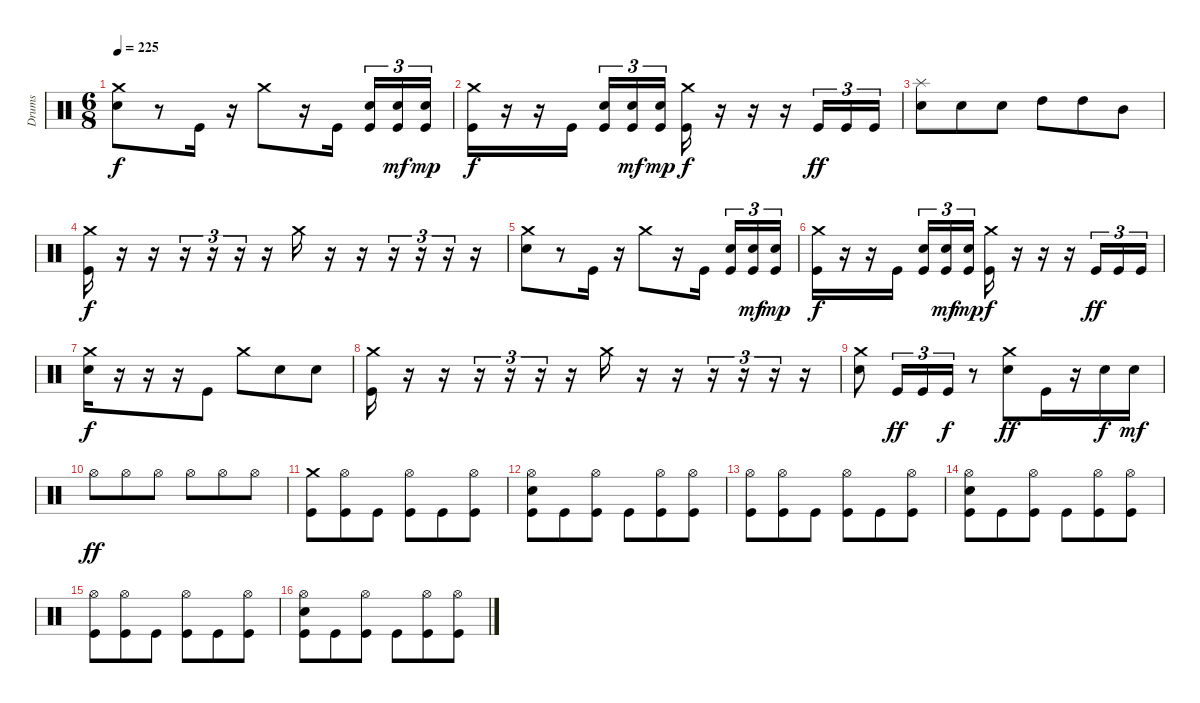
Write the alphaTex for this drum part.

\track ("Drums" "Drums") {instrument percussion}
\staff {score}
\articulation defaults
\ts (6 8)
\tempo 225
\clef neutral
\ks c
("Snare (hit) 2" "Crash medium (hit)").8{dy f} r.8 "Kick (hit)".16 r.16 "Crash medium (hit)".8 r.16 "Kick (hit)".16{beam splitsecondary} ("Kick (hit)" "Snare (hit) 2").16{tu (3 2)} ("Kick (hit)" "Snare (hit) 2").16{tu (3 2) dy mf} ("Kick (hit)" "Snare (hit) 2").16{tu (3 2) dy mp} |
("Kick (hit)" "Crash medium (hit)").16{dy f} r.16 r.16 "Kick (hit)".16{beam splitsecondary} ("Kick (hit)" "Snare (hit) 2").16{tu (3 2)} ("Kick (hit)" "Snare (hit) 2").16{tu (3 2) dy mf} ("Kick (hit)" "Snare (hit) 2").16{tu (3 2) dy mp} ("Kick (hit)" "Crash medium (hit)").16{dy f} r.16 r.16 r.16 "Kick (hit)".16{tu (3 2) dy ff} "Kick (hit)".16{tu (3 2)} "Kick (hit)".16{tu (3 2)} |
("Splash (hit)" "Snare (hit) 2").8 "Snare (hit) 2".8 "Snare (hit) 2".8 "High Tom (hit)".8 "High Tom (hit)".8 "Mid Tom (hit)".8 |
("Kick (hit)" "Crash medium (hit)").16{dy f} r.16 r.16 r.16{tu (3 2)} r.16{tu (3 2)} r.16{tu (3 2)} r.16 "Crash medium (hit)".16 r.16 r.16 r.16{tu (3 2)} r.16{tu (3 2)} r.16{tu (3 2)} r.16 |
("Snare (hit) 2" "Crash medium (hit)").8 r.8 "Kick (hit)".16 r.16 "Crash medium (hit)".8 r.16 "Kick (hit)".16{beam splitsecondary} ("Kick (hit)" "Snare (hit) 2").16{tu (3 2)} ("Kick (hit)" "Snare (hit) 2").16{tu (3 2) dy mf} ("Kick (hit)" "Snare (hit) 2").16{tu (3 2) dy mp} |
("Kick (hit)" "Crash medium (hit)").16{dy f} r.16 r.16 "Kick (hit)".16{beam splitsecondary} ("Kick (hit)" "Snare (hit) 2").16{tu (3 2)} ("Kick (hit)" "Snare (hit) 2").16{tu (3 2) dy mf} ("Kick (hit)" "Snare (hit) 2").16{tu (3 2) dy mp} ("Kick (hit)" "Crash medium (hit)").16{dy f} r.16 r.16 r.16 "Kick (hit)".16{tu (3 2) dy ff} "Kick (hit)".16{tu (3 2)} "Kick (hit)".16{tu (3 2)} |
("Snare (hit) 2" "Crash medium (hit)").16{dy f} r.16 r.16 r.16 "Kick (hit)".8 "Crash medium (hit)".8 "Snare (hit) 2".8 "Snare (hit) 2".8 |
("Kick (hit)" "Crash medium (hit)").16 r.16 r.16 r.16{tu (3 2)} r.16{tu (3 2)} r.16{tu (3 2)} r.16 "Crash medium (hit)".16 r.16 r.16 r.16{tu (3 2)} r.16{tu (3 2)} r.16{tu (3 2)} r.16 |
("Snare (hit) 2" "Crash medium (hit)").8 "Kick (hit)".16{tu (3 2) dy ff} "Kick (hit)".16{tu (3 2)} "Kick (hit)".16{tu (3 2) dy f} r.8 ("Snare (hit) 2" "Crash medium (hit)").8{dy ff} "Kick (hit)".16 r.16 "Snare (hit) 2".16{dy f} "Snare (hit) 2".16{dy mf} |
"Hi-Hat (open)".8{dy ff} "Hi-Hat (open)".8 "Hi-Hat (open)".8 "Hi-Hat (open)".8 "Hi-Hat (open)".8 "Hi-Hat (open)".8 |
("Kick (hit)" "Crash medium (hit)").8 ("Kick (hit)" "Hi-Hat (open)").8 "Kick (hit)".8 ("Kick (hit)" "Hi-Hat (open)").8 "Kick (hit)".8 ("Kick (hit)" "Hi-Hat (open)").8 |
("Kick (hit)" "Snare (hit) 2" "Hi-Hat (open)").8 "Kick (hit)".8 ("Kick (hit)" "Hi-Hat (open)").8 "Kick (hit)".8 ("Kick (hit)" "Hi-Hat (open)").8 ("Kick (hit)" "Hi-Hat (open)").8 |
("Kick (hit)" "Hi-Hat (open)").8 ("Kick (hit)" "Hi-Hat (open)").8 "Kick (hit)".8 ("Kick (hit)" "Hi-Hat (open)").8 "Kick (hit)".8 ("Kick (hit)" "Hi-Hat (open)").8 |
("Kick (hit)" "Snare (hit) 2" "Hi-Hat (open)").8 "Kick (hit)".8 ("Kick (hit)" "Hi-Hat (open)").8 "Kick (hit)".8 ("Kick (hit)" "Hi-Hat (open)").8 ("Kick (hit)" "Hi-Hat (open)").8 |
("Kick (hit)" "Hi-Hat (open)").8 ("Kick (hit)" "Hi-Hat (open)").8 "Kick (hit)".8 ("Kick (hit)" "Hi-Hat (open)").8 "Kick (hit)".8 ("Kick (hit)" "Hi-Hat (open)").8 |
("Kick (hit)" "Snare (hit) 2" "Hi-Hat (open)").8 "Kick (hit)".8 ("Kick (hit)" "Hi-Hat (open)").8 "Kick (hit)".8 ("Kick (hit)" "Hi-Hat (open)").8 ("Kick (hit)" "Hi-Hat (open)").8
